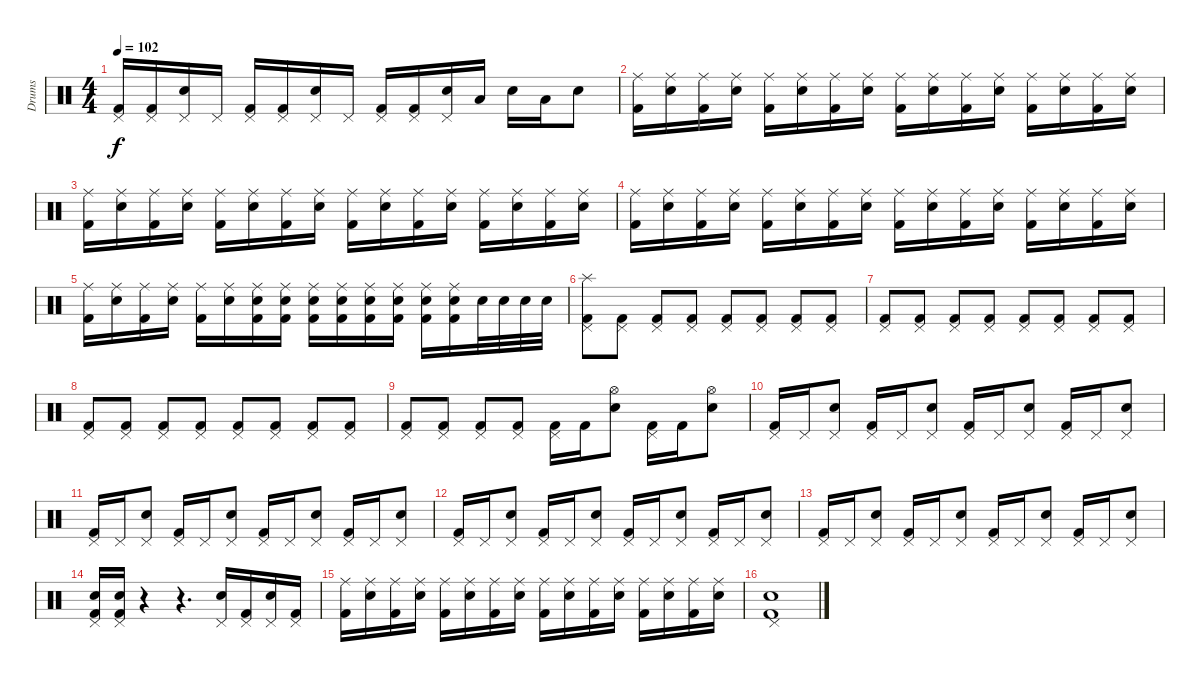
\track ("Drums" "Drums") {instrument percussion}
\staff {score}
\articulation defaults
\ts (4 4)
\tempo 102
\clef neutral
\ks c
("Pedal Hi-Hat (hit)" "Kick (hit) 2").16{dy f} ("Pedal Hi-Hat (hit)" "Kick (hit) 2").16 ("Pedal Hi-Hat (hit)" "Electric Snare (hit)").16 "Pedal Hi-Hat (hit)".16 ("Pedal Hi-Hat (hit)" "Kick (hit) 2").16 ("Pedal Hi-Hat (hit)" "Kick (hit) 2").16 ("Pedal Hi-Hat (hit)" "Electric Snare (hit)").16 "Pedal Hi-Hat (hit)".16 ("Pedal Hi-Hat (hit)" "Kick (hit) 2").16 ("Pedal Hi-Hat (hit)" "Kick (hit) 2").16 ("Pedal Hi-Hat (hit)" "Electric Snare (hit)").16 "Low Tom (hit)".16 "Electric Snare (hit)".16 "Low Tom (hit)".16 "Electric Snare (hit)".8 |
("Ride (middle)" "Kick (hit) 2").16 ("Ride (middle)" "Electric Snare (hit)").16 ("Ride (middle)" "Kick (hit) 2").16 ("Ride (middle)" "Electric Snare (hit)").16 ("Ride (middle)" "Kick (hit) 2").16 ("Ride (middle)" "Electric Snare (hit)").16 ("Ride (middle)" "Kick (hit) 2").16 ("Ride (middle)" "Electric Snare (hit)").16 ("Ride (middle)" "Kick (hit) 2").16 ("Ride (middle)" "Electric Snare (hit)").16 ("Ride (middle)" "Kick (hit) 2").16 ("Ride (middle)" "Electric Snare (hit)").16 ("Ride (middle)" "Kick (hit) 2").16 ("Ride (middle)" "Electric Snare (hit)").16 ("Ride (middle)" "Kick (hit) 2").16 ("Ride (middle)" "Electric Snare (hit)").16 |
("Ride (middle)" "Kick (hit) 2").16 ("Ride (middle)" "Electric Snare (hit)").16 ("Ride (middle)" "Kick (hit) 2").16 ("Ride (middle)" "Electric Snare (hit)").16 ("Ride (middle)" "Kick (hit) 2").16 ("Ride (middle)" "Electric Snare (hit)").16 ("Ride (middle)" "Kick (hit) 2").16 ("Ride (middle)" "Electric Snare (hit)").16 ("Ride (middle)" "Kick (hit) 2").16 ("Ride (middle)" "Electric Snare (hit)").16 ("Ride (middle)" "Kick (hit) 2").16 ("Ride (middle)" "Electric Snare (hit)").16 ("Ride (middle)" "Kick (hit) 2").16 ("Ride (middle)" "Electric Snare (hit)").16 ("Ride (middle)" "Kick (hit) 2").16 ("Ride (middle)" "Electric Snare (hit)").16 |
("Ride (middle)" "Kick (hit) 2").16 ("Ride (middle)" "Electric Snare (hit)").16 ("Ride (middle)" "Kick (hit) 2").16 ("Ride (middle)" "Electric Snare (hit)").16 ("Ride (middle)" "Kick (hit) 2").16 ("Ride (middle)" "Electric Snare (hit)").16 ("Ride (middle)" "Kick (hit) 2").16 ("Ride (middle)" "Electric Snare (hit)").16 ("Ride (middle)" "Kick (hit) 2").16 ("Ride (middle)" "Electric Snare (hit)").16 ("Ride (middle)" "Kick (hit) 2").16 ("Ride (middle)" "Electric Snare (hit)").16 ("Ride (middle)" "Kick (hit) 2").16 ("Ride (middle)" "Electric Snare (hit)").16 ("Ride (middle)" "Kick (hit) 2").16 ("Ride (middle)" "Electric Snare (hit)").16 |
("Ride (middle)" "Kick (hit) 2").16 ("Ride (middle)" "Electric Snare (hit)").16 ("Ride (middle)" "Kick (hit) 2").16 ("Ride (middle)" "Electric Snare (hit)").16 ("Ride (middle)" "Kick (hit) 2").16 ("Ride (middle)" "Electric Snare (hit)").16 ("Ride (middle)" "Electric Snare (hit)" "Kick (hit) 2").16 ("Ride (middle)" "Electric Snare (hit)" "Kick (hit) 2").16 ("Ride (middle)" "Electric Snare (hit)" "Kick (hit) 2").16 ("Ride (middle)" "Electric Snare (hit)" "Kick (hit) 2").16 ("Ride (middle)" "Electric Snare (hit)" "Kick (hit) 2").16 ("Ride (middle)" "Electric Snare (hit)" "Kick (hit) 2").16 ("Ride (middle)" "Electric Snare (hit)" "Kick (hit) 2").16 ("Ride (middle)" "Electric Snare (hit)" "Kick (hit) 2").16 "Electric Snare (hit)".32 "Electric Snare (hit)".32 "Electric Snare (hit)".32 "Electric Snare (hit)".32 |
("Splash (hit)" "Pedal Hi-Hat (hit)" "Kick (hit) 2").8 ("Pedal Hi-Hat (hit)" "Kick (hit) 2").8 ("Pedal Hi-Hat (hit)" "Kick (hit) 2").8 ("Pedal Hi-Hat (hit)" "Kick (hit) 2").8 ("Pedal Hi-Hat (hit)" "Kick (hit) 2").8 ("Pedal Hi-Hat (hit)" "Kick (hit) 2").8 ("Pedal Hi-Hat (hit)" "Kick (hit) 2").8 ("Pedal Hi-Hat (hit)" "Kick (hit) 2").8 |
("Pedal Hi-Hat (hit)" "Kick (hit) 2").8 ("Pedal Hi-Hat (hit)" "Kick (hit) 2").8 ("Pedal Hi-Hat (hit)" "Kick (hit) 2").8 ("Pedal Hi-Hat (hit)" "Kick (hit) 2").8 ("Pedal Hi-Hat (hit)" "Kick (hit) 2").8 ("Pedal Hi-Hat (hit)" "Kick (hit) 2").8 ("Pedal Hi-Hat (hit)" "Kick (hit) 2").8 ("Pedal Hi-Hat (hit)" "Kick (hit) 2").8 |
("Pedal Hi-Hat (hit)" "Kick (hit) 2").8 ("Pedal Hi-Hat (hit)" "Kick (hit) 2").8 ("Pedal Hi-Hat (hit)" "Kick (hit) 2").8 ("Pedal Hi-Hat (hit)" "Kick (hit) 2").8 ("Pedal Hi-Hat (hit)" "Kick (hit) 2").8 ("Pedal Hi-Hat (hit)" "Kick (hit) 2").8 ("Pedal Hi-Hat (hit)" "Kick (hit) 2").8 ("Pedal Hi-Hat (hit)" "Kick (hit) 2").8 |
("Pedal Hi-Hat (hit)" "Kick (hit) 2").8 ("Pedal Hi-Hat (hit)" "Kick (hit) 2").8 ("Pedal Hi-Hat (hit)" "Kick (hit) 2").8 ("Pedal Hi-Hat (hit)" "Kick (hit) 2").8 ("Pedal Hi-Hat (hit)" "Kick (hit) 2").16 "Kick (hit) 2".16 ("Hi-Hat (open)" "Electric Snare (hit)").8 ("Pedal Hi-Hat (hit)" "Kick (hit) 2").16 "Kick (hit) 2".16 ("Hi-Hat (open)" "Electric Snare (hit)").8 |
("Pedal Hi-Hat (hit)" "Kick (hit) 2").16 "Pedal Hi-Hat (hit)".16 ("Pedal Hi-Hat (hit)" "Electric Snare (hit)").8 ("Pedal Hi-Hat (hit)" "Kick (hit) 2").16 "Pedal Hi-Hat (hit)".16 ("Pedal Hi-Hat (hit)" "Electric Snare (hit)").8 ("Pedal Hi-Hat (hit)" "Kick (hit) 2").16 "Pedal Hi-Hat (hit)".16 ("Pedal Hi-Hat (hit)" "Electric Snare (hit)").8 ("Pedal Hi-Hat (hit)" "Kick (hit) 2").16 "Pedal Hi-Hat (hit)".16 ("Pedal Hi-Hat (hit)" "Electric Snare (hit)").8 |
("Pedal Hi-Hat (hit)" "Kick (hit) 2").16 "Pedal Hi-Hat (hit)".16 ("Pedal Hi-Hat (hit)" "Electric Snare (hit)").8 ("Pedal Hi-Hat (hit)" "Kick (hit) 2").16 "Pedal Hi-Hat (hit)".16 ("Pedal Hi-Hat (hit)" "Electric Snare (hit)").8 ("Pedal Hi-Hat (hit)" "Kick (hit) 2").16 "Pedal Hi-Hat (hit)".16 ("Pedal Hi-Hat (hit)" "Electric Snare (hit)").8 ("Pedal Hi-Hat (hit)" "Kick (hit) 2").16 "Pedal Hi-Hat (hit)".16 ("Pedal Hi-Hat (hit)" "Electric Snare (hit)").8 |
("Pedal Hi-Hat (hit)" "Kick (hit) 2").16 "Pedal Hi-Hat (hit)".16 ("Pedal Hi-Hat (hit)" "Electric Snare (hit)").8 ("Pedal Hi-Hat (hit)" "Kick (hit) 2").16 "Pedal Hi-Hat (hit)".16 ("Pedal Hi-Hat (hit)" "Electric Snare (hit)").8 ("Pedal Hi-Hat (hit)" "Kick (hit) 2").16 "Pedal Hi-Hat (hit)".16 ("Pedal Hi-Hat (hit)" "Electric Snare (hit)").8 ("Pedal Hi-Hat (hit)" "Kick (hit) 2").16 "Pedal Hi-Hat (hit)".16 ("Pedal Hi-Hat (hit)" "Electric Snare (hit)").8 |
("Pedal Hi-Hat (hit)" "Kick (hit) 2").16 "Pedal Hi-Hat (hit)".16 ("Pedal Hi-Hat (hit)" "Electric Snare (hit)").8 ("Pedal Hi-Hat (hit)" "Kick (hit) 2").16 "Pedal Hi-Hat (hit)".16 ("Pedal Hi-Hat (hit)" "Electric Snare (hit)").8 ("Pedal Hi-Hat (hit)" "Kick (hit) 2").16 "Pedal Hi-Hat (hit)".16 ("Pedal Hi-Hat (hit)" "Electric Snare (hit)").8 ("Pedal Hi-Hat (hit)" "Kick (hit) 2").16 "Pedal Hi-Hat (hit)".16 ("Pedal Hi-Hat (hit)" "Electric Snare (hit)").8 |
("Pedal Hi-Hat (hit)" "Electric Snare (hit)" "Kick (hit) 2").16 ("Pedal Hi-Hat (hit)" "Electric Snare (hit)" "Kick (hit) 2").16 r.4 r.4{d} ("Pedal Hi-Hat (hit)" "Electric Snare (hit)").16 ("Pedal Hi-Hat (hit)" "Kick (hit) 2").16 ("Pedal Hi-Hat (hit)" "Electric Snare (hit)").16 ("Pedal Hi-Hat (hit)" "Kick (hit) 2").16 |
("Ride (middle)" "Kick (hit) 2").16 ("Ride (middle)" "Electric Snare (hit)").16 ("Ride (middle)" "Kick (hit) 2").16 ("Ride (middle)" "Electric Snare (hit)").16 ("Ride (middle)" "Kick (hit) 2").16 ("Ride (middle)" "Electric Snare (hit)").16 ("Ride (middle)" "Kick (hit) 2").16 ("Ride (middle)" "Electric Snare (hit)").16 ("Ride (middle)" "Kick (hit) 2").16 ("Ride (middle)" "Electric Snare (hit)").16 ("Ride (middle)" "Kick (hit) 2").16 ("Ride (middle)" "Electric Snare (hit)").16 ("Ride (middle)" "Kick (hit) 2").16 ("Ride (middle)" "Electric Snare (hit)").16 ("Ride (middle)" "Kick (hit) 2").16 ("Ride (middle)" "Electric Snare (hit)").16 |
("Pedal Hi-Hat (hit)" "Electric Snare (hit)" "Kick (hit) 2").1
